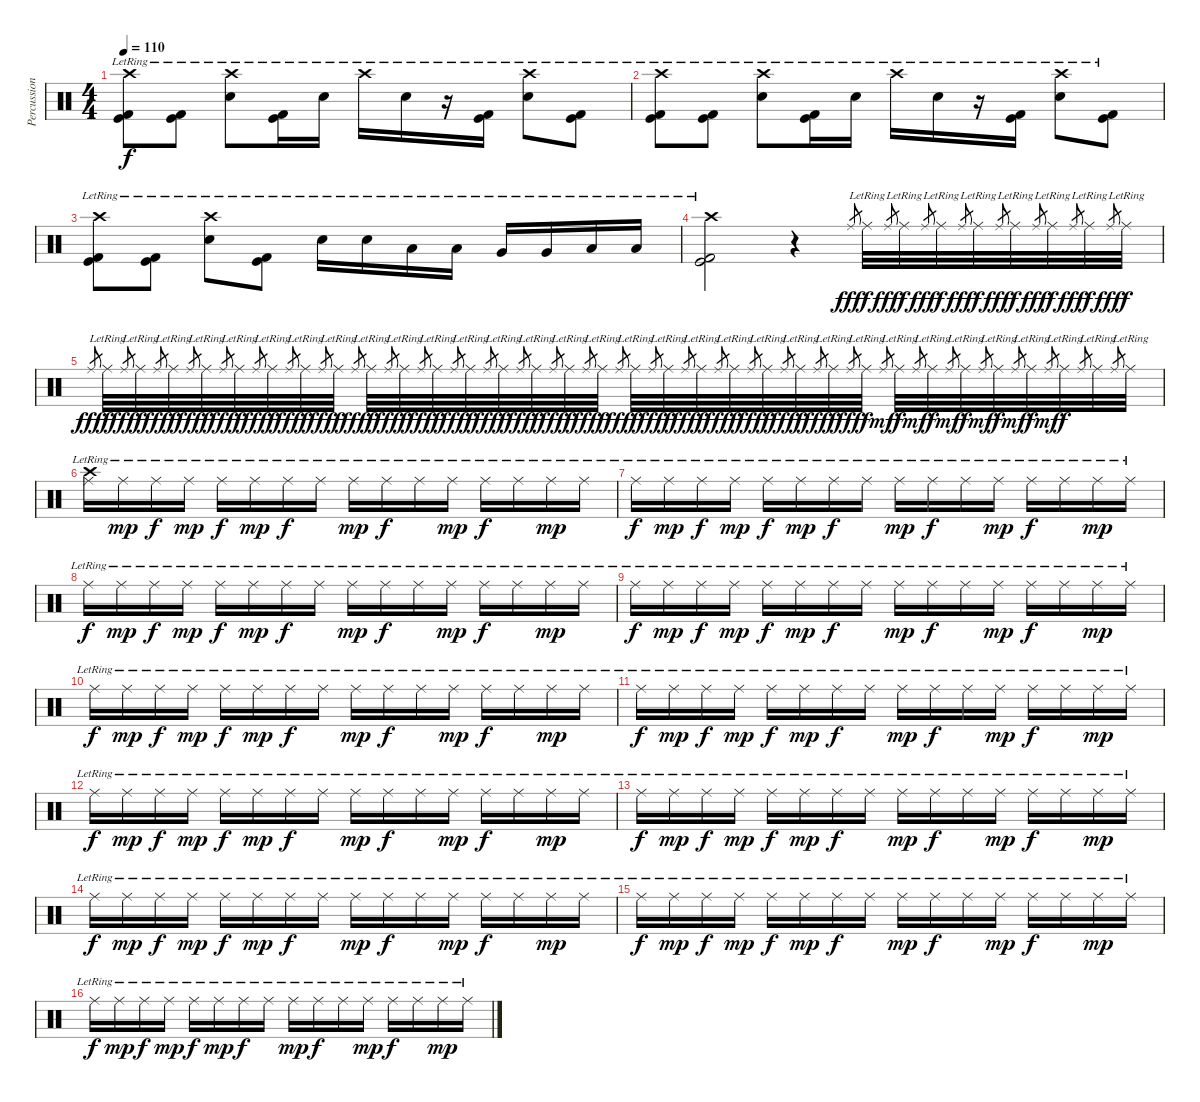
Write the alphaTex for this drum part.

\track ("Percussion" "Percussion") {instrument percussion}
\staff {score}
\articulation defaults
\ts (4 4)
\tempo 110
\clef neutral
\ks c
("Crash high (hit)"{lr} "Kick (hit) 2"{lr} "Kick (hit)"{lr}).8{dy f} ("Kick (hit) 2"{lr} "Kick (hit)"{lr}).8 ("Crash high (hit)"{lr} "Snare (hit) 2"{lr}).8 ("Kick (hit) 2"{lr} "Kick (hit)"{lr}).16 "Snare (hit) 2"{lr}.16 "Crash high (hit)"{lr}.16 "Snare (hit) 2"{lr}.16 r.16 ("Kick (hit) 2"{lr} "Kick (hit)"{lr}).16 ("Crash high (hit)"{lr} "Snare (hit) 2"{lr}).8 ("Kick (hit) 2"{lr} "Kick (hit)"{lr}).8 |
("Crash high (hit)"{lr} "Kick (hit) 2"{lr} "Kick (hit)"{lr}).8 ("Kick (hit) 2"{lr} "Kick (hit)"{lr}).8 ("Crash high (hit)"{lr} "Snare (hit) 2"{lr}).8 ("Kick (hit) 2"{lr} "Kick (hit)"{lr}).16 "Snare (hit) 2"{lr}.16 "Crash high (hit)"{lr}.16 "Snare (hit) 2"{lr}.16 r.16 ("Kick (hit) 2"{lr} "Kick (hit)"{lr}).16 ("Crash high (hit)"{lr} "Snare (hit) 2"{lr}).8 ("Kick (hit) 2"{lr} "Kick (hit)"{lr}).8 |
("Crash high (hit)"{lr} "Kick (hit) 2"{lr} "Kick (hit)"{lr}).8 ("Kick (hit) 2"{lr} "Kick (hit)"{lr}).8 ("Crash high (hit)"{lr} "Snare (hit) 2"{lr}).8 ("Kick (hit) 2"{lr} "Kick (hit)"{lr}).8 "Snare (hit) 2"{lr}.16 "Snare (hit) 2"{lr}.16 "Low Tom (hit)"{lr}.16 "Low Tom (hit)"{lr}.16 "Very Low Tom (hit)"{lr}.16 "Very Low Tom (hit)"{lr}.16 "Low Floor Tom (hit)"{lr}.16 "Low Floor Tom (hit)"{lr}.16 |
("Crash high (hit)"{lr} "Kick (hit) 2"{lr} "Kick (hit)"{lr}).2 r.4{volume 0} "Ride (middle)".8{gr dy fff} "Ride (middle)"{lr}.32{dy f volume 11} "Ride (middle)".8{gr dy fff} "Ride (middle)"{lr}.32{dy f} "Ride (middle)".8{gr dy fff} "Ride (middle)"{lr}.32{dy f} "Ride (middle)".8{gr dy fff} "Ride (middle)"{lr}.32{dy f} "Ride (middle)".8{gr dy fff} "Ride (middle)"{lr}.32{dy f} "Ride (middle)".8{gr dy fff} "Ride (middle)"{lr}.32{dy f} "Ride (middle)".8{gr dy fff} "Ride (middle)"{lr}.32{dy f} "Ride (middle)".8{gr dy fff} "Ride (middle)"{lr}.32{dy f} |
"Ride (middle)".8{gr dy fff} "Ride (middle)"{lr}.32{dy f} "Ride (middle)".8{gr dy fff} "Ride (middle)"{lr}.32{dy f} "Ride (middle)".8{gr dy fff} "Ride (middle)"{lr}.32{dy f} "Ride (middle)".8{gr dy fff} "Ride (middle)"{lr}.32{dy f} "Ride (middle)".8{gr dy fff} "Ride (middle)"{lr}.32{dy f} "Ride (middle)".8{gr dy fff} "Ride (middle)"{lr}.32{dy f} "Ride (middle)".8{gr dy fff} "Ride (middle)"{lr}.32{dy f} "Ride (middle)".8{gr dy fff} "Ride (middle)"{lr}.32{dy f} "Ride (middle)".8{gr dy fff} "Ride (middle)"{lr}.32{dy f} "Ride (middle)".8{gr dy fff} "Ride (middle)"{lr}.32{dy f} "Ride (middle)".8{gr dy fff} "Ride (middle)"{lr}.32{dy f} "Ride (middle)".8{gr dy fff} "Ride (middle)"{lr}.32{dy f} "Ride (middle)".8{gr dy fff} "Ride (middle)"{lr}.32{dy f} "Ride (middle)".8{gr dy fff} "Ride (middle)"{lr}.32{dy f} "Ride (middle)".8{gr dy fff} "Ride (middle)"{lr}.32{dy f} "Ride (middle)".8{gr dy fff} "Ride (middle)"{lr}.32{dy f} "Ride (middle)".8{gr dy fff} "Ride (middle)"{lr}.32{dy f} "Ride (middle)".8{gr dy fff} "Ride (middle)"{lr}.32{dy f} "Ride (middle)".8{gr dy fff} "Ride (middle)"{lr}.32{dy f} "Ride (middle)".8{gr dy fff} "Ride (middle)"{lr}.32{dy f} "Ride (middle)".8{gr dy fff} "Ride (middle)"{lr}.32{dy f} "Ride (middle)".8{gr dy fff} "Ride (middle)"{lr}.32{dy f} "Ride (middle)".8{gr dy fff} "Ride (middle)"{lr}.32{dy f} "Ride (middle)".8{gr dy fff} "Ride (middle)"{lr}.32{dy f} "Ride (middle)".8{gr dy mf} "Ride (middle)"{lr}.32{dy f} "Ride (middle)".8{gr dy mf} "Ride (middle)"{lr}.32{dy f} "Ride (middle)".8{gr dy mf} "Ride (middle)"{lr}.32{dy f} "Ride (middle)".8{gr dy mf} "Ride (middle)"{lr}.32{dy f} "Ride (middle)".8{gr dy mf} "Ride (middle)"{lr}.32{dy f} "Ride (middle)".8{gr dy mf} "Ride (middle)"{lr}.32{dy f} "Ride (middle)".8{gr} "Ride (middle)"{lr}.32 "Ride (middle)".8{gr} "Ride (middle)"{lr}.32 |
("Ride (middle)"{lr} "Crash high (hit)"{lr}).16 "Ride (middle)"{lr}.16{dy mp} "Ride (middle)"{lr}.16{dy f} "Ride (middle)"{lr}.16{dy mp} "Ride (middle)"{lr}.16{dy f} "Ride (middle)"{lr}.16{dy mp} "Ride (middle)"{lr}.16{dy f} "Ride (middle)"{lr}.16 "Ride (middle)"{lr}.16{dy mp} "Ride (middle)"{lr}.16{dy f} "Ride (middle)"{lr}.16 "Ride (middle)"{lr}.16{dy mp} "Ride (middle)"{lr}.16{dy f} "Ride (middle)"{lr}.16 "Ride (middle)"{lr}.16{dy mp} "Ride (middle)"{lr}.16 |
"Ride (middle)"{lr}.16{dy f} "Ride (middle)"{lr}.16{dy mp} "Ride (middle)"{lr}.16{dy f} "Ride (middle)"{lr}.16{dy mp} "Ride (middle)"{lr}.16{dy f} "Ride (middle)"{lr}.16{dy mp} "Ride (middle)"{lr}.16{dy f} "Ride (middle)"{lr}.16 "Ride (middle)"{lr}.16{dy mp} "Ride (middle)"{lr}.16{dy f} "Ride (middle)"{lr}.16 "Ride (middle)"{lr}.16{dy mp} "Ride (middle)"{lr}.16{dy f} "Ride (middle)"{lr}.16 "Ride (middle)"{lr}.16{dy mp} "Ride (middle)"{lr}.16 |
"Ride (middle)"{lr}.16{dy f} "Ride (middle)"{lr}.16{dy mp} "Ride (middle)"{lr}.16{dy f} "Ride (middle)"{lr}.16{dy mp} "Ride (middle)"{lr}.16{dy f} "Ride (middle)"{lr}.16{dy mp} "Ride (middle)"{lr}.16{dy f} "Ride (middle)"{lr}.16 "Ride (middle)"{lr}.16{dy mp} "Ride (middle)"{lr}.16{dy f} "Ride (middle)"{lr}.16 "Ride (middle)"{lr}.16{dy mp} "Ride (middle)"{lr}.16{dy f} "Ride (middle)"{lr}.16 "Ride (middle)"{lr}.16{dy mp} "Ride (middle)"{lr}.16 |
"Ride (middle)"{lr}.16{dy f} "Ride (middle)"{lr}.16{dy mp} "Ride (middle)"{lr}.16{dy f} "Ride (middle)"{lr}.16{dy mp} "Ride (middle)"{lr}.16{dy f} "Ride (middle)"{lr}.16{dy mp} "Ride (middle)"{lr}.16{dy f} "Ride (middle)"{lr}.16 "Ride (middle)"{lr}.16{dy mp} "Ride (middle)"{lr}.16{dy f} "Ride (middle)"{lr}.16 "Ride (middle)"{lr}.16{dy mp} "Ride (middle)"{lr}.16{dy f} "Ride (middle)"{lr}.16 "Ride (middle)"{lr}.16{dy mp} "Ride (middle)"{lr}.16 |
"Ride (middle)"{lr}.16{dy f} "Ride (middle)"{lr}.16{dy mp} "Ride (middle)"{lr}.16{dy f} "Ride (middle)"{lr}.16{dy mp} "Ride (middle)"{lr}.16{dy f} "Ride (middle)"{lr}.16{dy mp} "Ride (middle)"{lr}.16{dy f} "Ride (middle)"{lr}.16 "Ride (middle)"{lr}.16{dy mp} "Ride (middle)"{lr}.16{dy f} "Ride (middle)"{lr}.16 "Ride (middle)"{lr}.16{dy mp} "Ride (middle)"{lr}.16{dy f} "Ride (middle)"{lr}.16 "Ride (middle)"{lr}.16{dy mp} "Ride (middle)"{lr}.16 |
"Ride (middle)"{lr}.16{dy f} "Ride (middle)"{lr}.16{dy mp} "Ride (middle)"{lr}.16{dy f} "Ride (middle)"{lr}.16{dy mp} "Ride (middle)"{lr}.16{dy f} "Ride (middle)"{lr}.16{dy mp} "Ride (middle)"{lr}.16{dy f} "Ride (middle)"{lr}.16 "Ride (middle)"{lr}.16{dy mp} "Ride (middle)"{lr}.16{dy f} "Ride (middle)"{lr}.16 "Ride (middle)"{lr}.16{dy mp} "Ride (middle)"{lr}.16{dy f} "Ride (middle)"{lr}.16 "Ride (middle)"{lr}.16{dy mp} "Ride (middle)"{lr}.16 |
"Ride (middle)"{lr}.16{dy f} "Ride (middle)"{lr}.16{dy mp} "Ride (middle)"{lr}.16{dy f} "Ride (middle)"{lr}.16{dy mp} "Ride (middle)"{lr}.16{dy f} "Ride (middle)"{lr}.16{dy mp} "Ride (middle)"{lr}.16{dy f} "Ride (middle)"{lr}.16 "Ride (middle)"{lr}.16{dy mp} "Ride (middle)"{lr}.16{dy f} "Ride (middle)"{lr}.16 "Ride (middle)"{lr}.16{dy mp} "Ride (middle)"{lr}.16{dy f} "Ride (middle)"{lr}.16 "Ride (middle)"{lr}.16{dy mp} "Ride (middle)"{lr}.16 |
"Ride (middle)"{lr}.16{dy f} "Ride (middle)"{lr}.16{dy mp} "Ride (middle)"{lr}.16{dy f} "Ride (middle)"{lr}.16{dy mp} "Ride (middle)"{lr}.16{dy f} "Ride (middle)"{lr}.16{dy mp} "Ride (middle)"{lr}.16{dy f} "Ride (middle)"{lr}.16 "Ride (middle)"{lr}.16{dy mp} "Ride (middle)"{lr}.16{dy f} "Ride (middle)"{lr}.16 "Ride (middle)"{lr}.16{dy mp} "Ride (middle)"{lr}.16{dy f} "Ride (middle)"{lr}.16 "Ride (middle)"{lr}.16{dy mp} "Ride (middle)"{lr}.16 |
"Ride (middle)"{lr}.16{dy f} "Ride (middle)"{lr}.16{dy mp} "Ride (middle)"{lr}.16{dy f} "Ride (middle)"{lr}.16{dy mp} "Ride (middle)"{lr}.16{dy f} "Ride (middle)"{lr}.16{dy mp} "Ride (middle)"{lr}.16{dy f} "Ride (middle)"{lr}.16 "Ride (middle)"{lr}.16{dy mp} "Ride (middle)"{lr}.16{dy f} "Ride (middle)"{lr}.16 "Ride (middle)"{lr}.16{dy mp} "Ride (middle)"{lr}.16{dy f} "Ride (middle)"{lr}.16 "Ride (middle)"{lr}.16{dy mp} "Ride (middle)"{lr}.16 |
"Ride (middle)"{lr}.16{dy f} "Ride (middle)"{lr}.16{dy mp} "Ride (middle)"{lr}.16{dy f} "Ride (middle)"{lr}.16{dy mp} "Ride (middle)"{lr}.16{dy f} "Ride (middle)"{lr}.16{dy mp} "Ride (middle)"{lr}.16{dy f} "Ride (middle)"{lr}.16 "Ride (middle)"{lr}.16{dy mp} "Ride (middle)"{lr}.16{dy f} "Ride (middle)"{lr}.16 "Ride (middle)"{lr}.16{dy mp} "Ride (middle)"{lr}.16{dy f} "Ride (middle)"{lr}.16 "Ride (middle)"{lr}.16{dy mp} "Ride (middle)"{lr}.16 |
"Ride (middle)"{lr}.16{dy f} "Ride (middle)"{lr}.16{dy mp} "Ride (middle)"{lr}.16{dy f} "Ride (middle)"{lr}.16{dy mp} "Ride (middle)"{lr}.16{dy f} "Ride (middle)"{lr}.16{dy mp} "Ride (middle)"{lr}.16{dy f} "Ride (middle)"{lr}.16 "Ride (middle)"{lr}.16{dy mp} "Ride (middle)"{lr}.16{dy f} "Ride (middle)"{lr}.16 "Ride (middle)"{lr}.16{dy mp} "Ride (middle)"{lr}.16{dy f} "Ride (middle)"{lr}.16 "Ride (middle)"{lr}.16{dy mp} "Ride (middle)"{lr}.16
